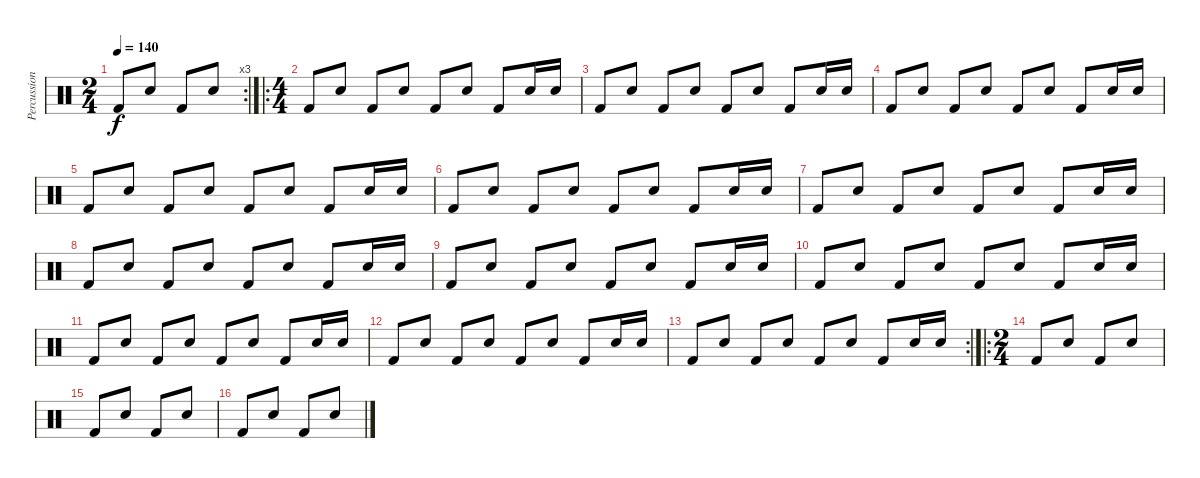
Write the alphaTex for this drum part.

\track ("Percussions" "Percussion") {instrument percussion}
\staff {score}
\articulation defaults
\rc 3
\ts (2 4)
\tempo 140
\clef neutral
\ks c "Kick (hit) 2".8{dy f} "Snare (hit) 2".8 "Kick (hit) 2".8 "Snare (hit) 2".8
|
\ro
\ts (4 4)
"Kick (hit) 2".8 "Snare (hit) 2".8 "Kick (hit) 2".8 "Snare (hit) 2".8 "Kick (hit) 2".8 "Snare (hit) 2".8 "Kick (hit) 2".8 "Snare (hit) 2".16 "Snare (hit) 2".16 |
"Kick (hit) 2".8 "Snare (hit) 2".8 "Kick (hit) 2".8 "Snare (hit) 2".8 "Kick (hit) 2".8 "Snare (hit) 2".8 "Kick (hit) 2".8 "Snare (hit) 2".16 "Snare (hit) 2".16 |
"Kick (hit) 2".8 "Snare (hit) 2".8 "Kick (hit) 2".8 "Snare (hit) 2".8 "Kick (hit) 2".8 "Snare (hit) 2".8 "Kick (hit) 2".8 "Snare (hit) 2".16 "Snare (hit) 2".16 |
"Kick (hit) 2".8 "Snare (hit) 2".8 "Kick (hit) 2".8 "Snare (hit) 2".8 "Kick (hit) 2".8 "Snare (hit) 2".8 "Kick (hit) 2".8 "Snare (hit) 2".16 "Snare (hit) 2".16 |
"Kick (hit) 2".8 "Snare (hit) 2".8 "Kick (hit) 2".8 "Snare (hit) 2".8 "Kick (hit) 2".8 "Snare (hit) 2".8 "Kick (hit) 2".8 "Snare (hit) 2".16 "Snare (hit) 2".16 |
"Kick (hit) 2".8 "Snare (hit) 2".8 "Kick (hit) 2".8 "Snare (hit) 2".8 "Kick (hit) 2".8 "Snare (hit) 2".8 "Kick (hit) 2".8 "Snare (hit) 2".16 "Snare (hit) 2".16 |
"Kick (hit) 2".8 "Snare (hit) 2".8 "Kick (hit) 2".8 "Snare (hit) 2".8 "Kick (hit) 2".8 "Snare (hit) 2".8 "Kick (hit) 2".8 "Snare (hit) 2".16 "Snare (hit) 2".16 |
"Kick (hit) 2".8 "Snare (hit) 2".8 "Kick (hit) 2".8 "Snare (hit) 2".8 "Kick (hit) 2".8 "Snare (hit) 2".8 "Kick (hit) 2".8 "Snare (hit) 2".16 "Snare (hit) 2".16 |
"Kick (hit) 2".8 "Snare (hit) 2".8 "Kick (hit) 2".8 "Snare (hit) 2".8 "Kick (hit) 2".8 "Snare (hit) 2".8 "Kick (hit) 2".8 "Snare (hit) 2".16 "Snare (hit) 2".16 |
"Kick (hit) 2".8 "Snare (hit) 2".8 "Kick (hit) 2".8 "Snare (hit) 2".8 "Kick (hit) 2".8 "Snare (hit) 2".8 "Kick (hit) 2".8 "Snare (hit) 2".16 "Snare (hit) 2".16 |
"Kick (hit) 2".8 "Snare (hit) 2".8 "Kick (hit) 2".8 "Snare (hit) 2".8 "Kick (hit) 2".8 "Snare (hit) 2".8 "Kick (hit) 2".8 "Snare (hit) 2".16 "Snare (hit) 2".16 |
\rc 2 "Kick (hit) 2".8 "Snare (hit) 2".8 "Kick (hit) 2".8 "Snare (hit) 2".8 "Kick (hit) 2".8 "Snare (hit) 2".8 "Kick (hit) 2".8 "Snare (hit) 2".16 "Snare (hit) 2".16
|
\ro
\ts (2 4)
"Kick (hit) 2".8 "Snare (hit) 2".8 "Kick (hit) 2".8 "Snare (hit) 2".8 |
"Kick (hit) 2".8 "Snare (hit) 2".8 "Kick (hit) 2".8 "Snare (hit) 2".8 |
"Kick (hit) 2".8 "Snare (hit) 2".8 "Kick (hit) 2".8 "Snare (hit) 2".8
